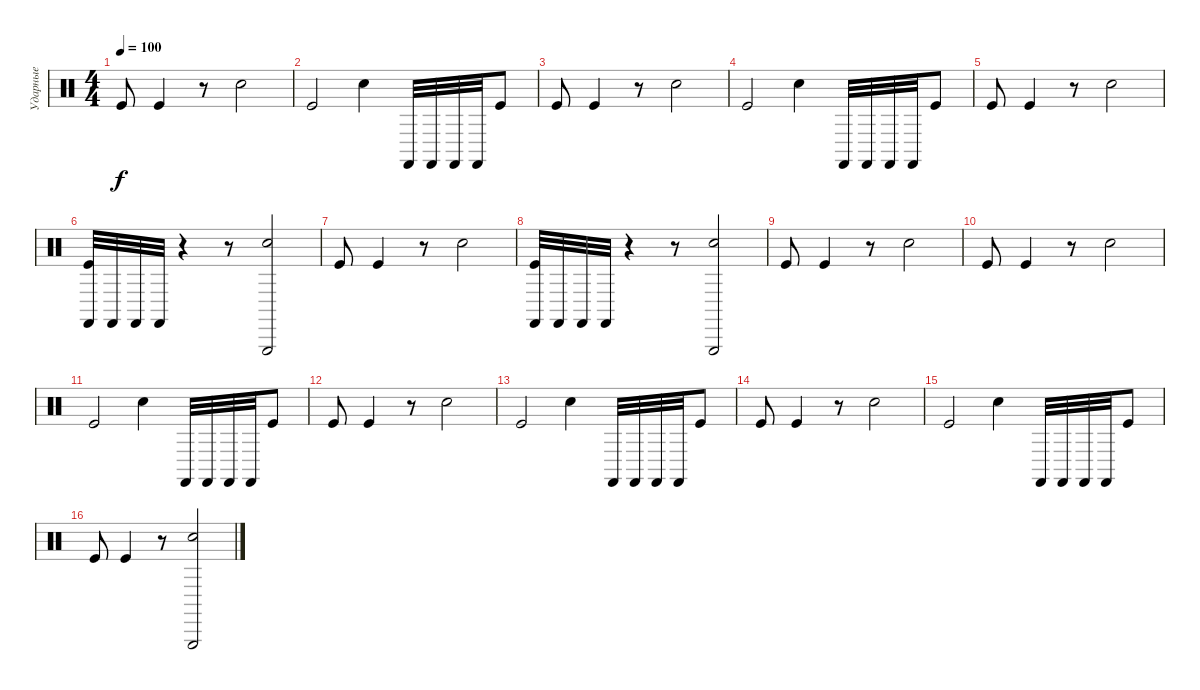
\track ("Ударные" "Ударные") {instrument percussion}
\staff {score}
\articulation defaults
\ts (4 4)
\tempo 100
\clef neutral
\ks c "Kick (hit)".8{dy f} "Kick (hit)".4
r.8 "Snare (hit) 2".2 |
"Kick (hit)".2 "Snare (hit) 2".4 "Castanets (hit)".32 "Castanets (hit)".32 "Castanets (hit)".32 "Castanets (hit)".32 "Kick (hit)".8 |
"Kick (hit)".8 "Kick (hit)".4 r.8 "Snare (hit) 2".2 |
"Kick (hit)".2 "Snare (hit) 2".4 "Castanets (hit)".32 "Castanets (hit)".32 "Castanets (hit)".32 "Castanets (hit)".32 "Kick (hit)".8 |
"Kick (hit)".8 "Kick (hit)".4 r.8 "Snare (hit) 2".2 |
("Castanets (hit)" "Kick (hit)").32 "Castanets (hit)".32 "Castanets (hit)".32 "Castanets (hit)".32 r.4 r.8 ("Triangle (hit)" "Snare (hit) 2").2 |
"Kick (hit)".8 "Kick (hit)".4 r.8 "Snare (hit) 2".2 |
("Castanets (hit)" "Kick (hit)").32 "Castanets (hit)".32 "Castanets (hit)".32 "Castanets (hit)".32 r.4 r.8 ("Triangle (hit)" "Snare (hit) 2").2 |
"Kick (hit)".8 "Kick (hit)".4 r.8 "Snare (hit) 2".2 |
"Kick (hit)".8 "Kick (hit)".4 r.8 "Snare (hit) 2".2 |
"Kick (hit)".2 "Snare (hit) 2".4 "Castanets (hit)".32 "Castanets (hit)".32 "Castanets (hit)".32 "Castanets (hit)".32 "Kick (hit)".8 |
"Kick (hit)".8 "Kick (hit)".4 r.8 "Snare (hit) 2".2 |
"Kick (hit)".2 "Snare (hit) 2".4 "Castanets (hit)".32 "Castanets (hit)".32 "Castanets (hit)".32 "Castanets (hit)".32 "Kick (hit)".8 |
"Kick (hit)".8 "Kick (hit)".4 r.8 "Snare (hit) 2".2 |
"Kick (hit)".2 "Snare (hit) 2".4 "Castanets (hit)".32 "Castanets (hit)".32 "Castanets (hit)".32 "Castanets (hit)".32 "Kick (hit)".8 |
"Kick (hit)".8 "Kick (hit)".4 r.8 ("Snare (hit) 2" "Triangle (hit)").2
